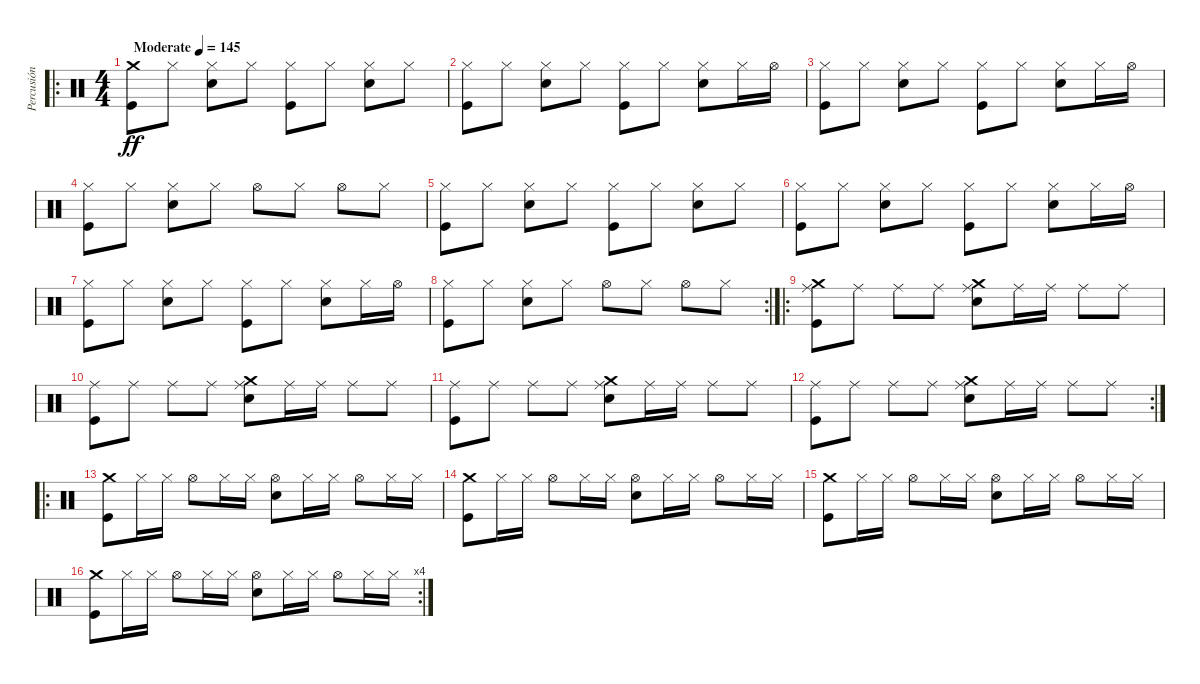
\track ("Percusión" "Percusión") {instrument percussion}
\staff {score}
\articulation defaults
\ro
\ts (4 4)
\tempo (145 "Moderate")
\clef neutral
\ks c
("Crash medium (hit)" "Kick (hit)").8{dy ff} "Hi-Hat (closed)".8 ("Hi-Hat (closed)" "Electric Snare (hit)").8 "Hi-Hat (closed)".8 ("Hi-Hat (closed)" "Kick (hit)").8 "Hi-Hat (closed)".8 ("Hi-Hat (closed)" "Electric Snare (hit)").8 "Hi-Hat (closed)".8 |
("Hi-Hat (closed)" "Kick (hit)").8 "Hi-Hat (closed)".8 ("Hi-Hat (closed)" "Electric Snare (hit)").8 "Hi-Hat (closed)".8 ("Hi-Hat (closed)" "Kick (hit)").8 "Hi-Hat (closed)".8 ("Hi-Hat (closed)" "Electric Snare (hit)").8 "Hi-Hat (closed)".16 "Hi-Hat (open)".16 |
("Hi-Hat (closed)" "Kick (hit)").8 "Hi-Hat (closed)".8 ("Hi-Hat (closed)" "Electric Snare (hit)").8 "Hi-Hat (closed)".8 ("Hi-Hat (closed)" "Kick (hit)").8 "Hi-Hat (closed)".8 ("Hi-Hat (closed)" "Electric Snare (hit)").8 "Hi-Hat (closed)".16 "Hi-Hat (open)".16 |
("Hi-Hat (closed)" "Kick (hit)").8 "Hi-Hat (closed)".8 ("Hi-Hat (closed)" "Electric Snare (hit)").8 "Hi-Hat (closed)".8 "Hi-Hat (open)".8 "Hi-Hat (closed)".8 "Hi-Hat (open)".8 "Hi-Hat (closed)".8 |
("Hi-Hat (closed)" "Kick (hit)").8 "Hi-Hat (closed)".8 ("Hi-Hat (closed)" "Electric Snare (hit)").8 "Hi-Hat (closed)".8 ("Hi-Hat (closed)" "Kick (hit)").8 "Hi-Hat (closed)".8 ("Hi-Hat (closed)" "Electric Snare (hit)").8 "Hi-Hat (closed)".8 |
("Hi-Hat (closed)" "Kick (hit)").8 "Hi-Hat (closed)".8 ("Hi-Hat (closed)" "Electric Snare (hit)").8 "Hi-Hat (closed)".8 ("Hi-Hat (closed)" "Kick (hit)").8 "Hi-Hat (closed)".8 ("Hi-Hat (closed)" "Electric Snare (hit)").8 "Hi-Hat (closed)".16 "Hi-Hat (open)".16 |
("Hi-Hat (closed)" "Kick (hit)").8 "Hi-Hat (closed)".8 ("Hi-Hat (closed)" "Electric Snare (hit)").8 "Hi-Hat (closed)".8 ("Hi-Hat (closed)" "Kick (hit)").8 "Hi-Hat (closed)".8 ("Hi-Hat (closed)" "Electric Snare (hit)").8 "Hi-Hat (closed)".16 "Hi-Hat (open)".16 |
\rc 2
("Hi-Hat (closed)" "Kick (hit)").8 "Hi-Hat (closed)".8 ("Hi-Hat (closed)" "Electric Snare (hit)").8 "Hi-Hat (closed)".8 "Hi-Hat (open)".8 "Hi-Hat (closed)".8 "Hi-Hat (open)".8 "Hi-Hat (closed)".8 |
\ro
("Crash medium (hit)" "Ride (middle)" "Kick (hit)").8 "Ride (middle)".8 "Ride (middle)".8 "Ride (middle)".8 ("Crash medium (hit)" "Ride (middle)" "Electric Snare (hit)").8 "Ride (middle)".16 "Ride (middle)".16 "Ride (middle)".8 "Ride (middle)".8 |
("Ride (middle)" "Kick (hit)").8 "Ride (middle)".8 "Ride (middle)".8 "Ride (middle)".8 ("Crash medium (hit)" "Ride (middle)" "Electric Snare (hit)").8 "Ride (middle)".16 "Ride (middle)".16 "Ride (middle)".8 "Ride (middle)".8 |
("Ride (middle)" "Kick (hit)").8 "Ride (middle)".8 "Ride (middle)".8 "Ride (middle)".8 ("Crash medium (hit)" "Ride (middle)" "Electric Snare (hit)").8 "Ride (middle)".16 "Ride (middle)".16 "Ride (middle)".8 "Ride (middle)".8 |
\rc 2
("Ride (middle)" "Kick (hit)").8 "Ride (middle)".8 "Ride (middle)".8 "Ride (middle)".8 ("Crash medium (hit)" "Ride (middle)" "Electric Snare (hit)").8 "Ride (middle)".16 "Ride (middle)".16 "Ride (middle)".8 "Ride (middle)".8 |
\ro
("Crash medium (hit)" "Kick (hit)").8 "Hi-Hat (closed)".16 "Hi-Hat (closed)".16 "Hi-Hat (open)".8 "Hi-Hat (closed)".16 "Hi-Hat (closed)".16 ("Hi-Hat (open)" "Electric Snare (hit)").8 "Hi-Hat (closed)".16 "Hi-Hat (closed)".16 "Hi-Hat (open)".8 "Hi-Hat (closed)".16 "Hi-Hat (closed)".16 |
("Crash medium (hit)" "Kick (hit)").8 "Hi-Hat (closed)".16 "Hi-Hat (closed)".16 "Hi-Hat (open)".8 "Hi-Hat (closed)".16 "Hi-Hat (closed)".16 ("Hi-Hat (open)" "Electric Snare (hit)").8 "Hi-Hat (closed)".16 "Hi-Hat (closed)".16 "Hi-Hat (open)".8 "Hi-Hat (closed)".16 "Hi-Hat (closed)".16 |
("Crash medium (hit)" "Kick (hit)").8 "Hi-Hat (closed)".16 "Hi-Hat (closed)".16 "Hi-Hat (open)".8 "Hi-Hat (closed)".16 "Hi-Hat (closed)".16 ("Hi-Hat (open)" "Electric Snare (hit)").8 "Hi-Hat (closed)".16 "Hi-Hat (closed)".16 "Hi-Hat (open)".8 "Hi-Hat (closed)".16 "Hi-Hat (closed)".16 |
\rc 4
("Crash medium (hit)" "Kick (hit)").8 "Hi-Hat (closed)".16 "Hi-Hat (closed)".16 "Hi-Hat (open)".8 "Hi-Hat (closed)".16 "Hi-Hat (closed)".16 ("Hi-Hat (open)" "Electric Snare (hit)").8 "Hi-Hat (closed)".16 "Hi-Hat (closed)".16 "Hi-Hat (open)".8 "Hi-Hat (closed)".16 "Hi-Hat (closed)".16
